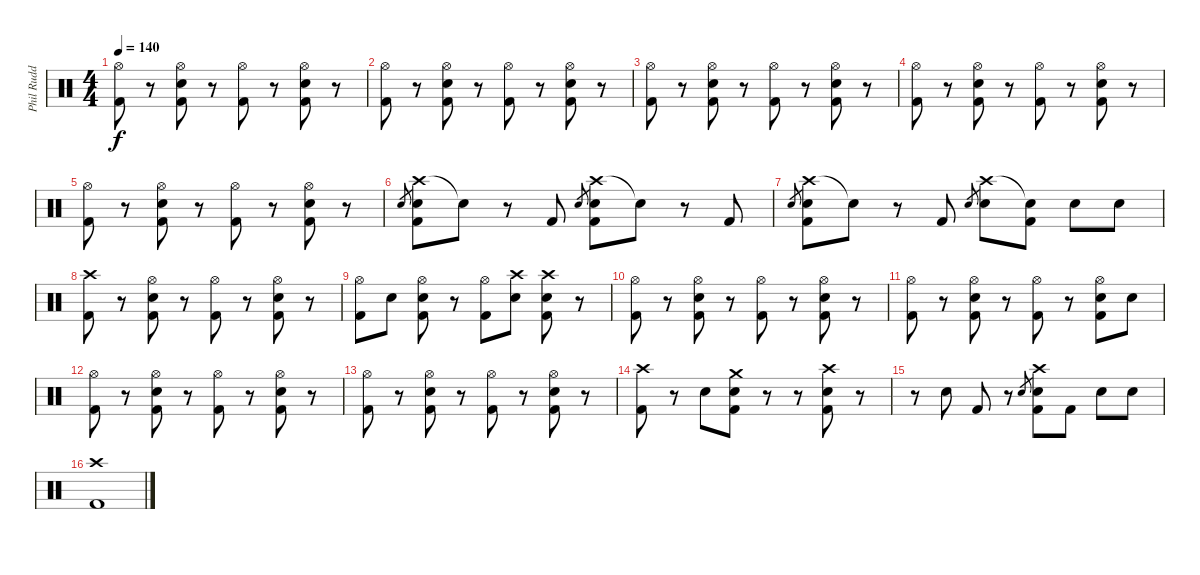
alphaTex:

\track ("Phil Rudd" "Phil Rudd") {instrument percussion}
\staff {score}
\articulation defaults
\ts (4 4)
\tempo 140
\clef neutral
\ks c
("Hi-Hat (open)" "Kick (hit) 2").8{dy f} r.8 ("Hi-Hat (open)" "Electric Snare (hit)" "Kick (hit) 2").8 r.8 ("Hi-Hat (open)" "Kick (hit) 2").8 r.8 ("Hi-Hat (open)" "Electric Snare (hit)" "Kick (hit) 2").8 r.8 |
("Hi-Hat (open)" "Kick (hit) 2").8 r.8 ("Hi-Hat (open)" "Electric Snare (hit)" "Kick (hit) 2").8 r.8 ("Hi-Hat (open)" "Kick (hit) 2").8 r.8 ("Hi-Hat (open)" "Electric Snare (hit)" "Kick (hit) 2").8 r.8 |
("Hi-Hat (open)" "Kick (hit) 2").8 r.8 ("Hi-Hat (open)" "Electric Snare (hit)" "Kick (hit) 2").8 r.8 ("Hi-Hat (open)" "Kick (hit) 2").8 r.8 ("Hi-Hat (open)" "Electric Snare (hit)" "Kick (hit) 2").8 r.8 |
("Hi-Hat (open)" "Kick (hit) 2").8 r.8 ("Hi-Hat (open)" "Electric Snare (hit)" "Kick (hit) 2").8 r.8 ("Hi-Hat (open)" "Kick (hit) 2").8 r.8 ("Hi-Hat (open)" "Electric Snare (hit)" "Kick (hit) 2").8 r.8 |
("Hi-Hat (open)" "Kick (hit) 2").8 r.8 ("Hi-Hat (open)" "Electric Snare (hit)" "Kick (hit) 2").8 r.8 ("Hi-Hat (open)" "Kick (hit) 2").8 r.8 ("Hi-Hat (open)" "Electric Snare (hit)" "Kick (hit) 2").8 r.8 |
"Electric Snare (hit)".8{gr} ("Crash high (hit)" "Electric Snare (hit)" "Kick (hit) 2").8 "Snare (hit)"{t}.8 r.8 "Kick (hit) 2".8 "Electric Snare (hit)".8{gr} ("Crash high (hit)" "Electric Snare (hit)" "Kick (hit) 2").8 "Snare (hit)"{t}.8 r.8 "Kick (hit) 2".8 |
"Electric Snare (hit)".8{gr} ("Crash high (hit)" "Electric Snare (hit)" "Kick (hit) 2").8 "Snare (hit)"{t}.8 r.8 "Kick (hit) 2".8 "Electric Snare (hit)".8{gr} ("Crash high (hit)" "Electric Snare (hit)").8 ("Snare (hit)"{t} "Kick (hit) 2").8 "Electric Snare (hit)".8 "Electric Snare (hit)".8 |
("Crash high (hit)" "Kick (hit) 2").8 r.8 ("Hi-Hat (open)" "Electric Snare (hit)" "Kick (hit) 2").8 r.8 ("Hi-Hat (open)" "Kick (hit) 2").8 r.8 ("Hi-Hat (open)" "Electric Snare (hit)" "Kick (hit) 2").8 r.8 |
("Hi-Hat (open)" "Kick (hit) 2").8 "Electric Snare (hit)".8 ("Hi-Hat (open)" "Electric Snare (hit)" "Kick (hit) 2").8 r.8 ("Hi-Hat (open)" "Kick (hit) 2").8 ("Crash high (hit)" "Electric Snare (hit)").8 ("Crash high (hit)" "Electric Snare (hit)" "Kick (hit) 2").8 r.8 |
("Hi-Hat (open)" "Kick (hit) 2").8 r.8 ("Hi-Hat (open)" "Electric Snare (hit)" "Kick (hit) 2").8 r.8 ("Hi-Hat (open)" "Kick (hit) 2").8 r.8 ("Hi-Hat (open)" "Electric Snare (hit)" "Kick (hit) 2").8 r.8 |
("Hi-Hat (open)" "Kick (hit) 2").8 r.8 ("Hi-Hat (open)" "Electric Snare (hit)" "Kick (hit) 2").8 r.8 ("Hi-Hat (open)" "Kick (hit) 2").8 r.8 ("Hi-Hat (open)" "Electric Snare (hit)" "Kick (hit) 2").8 "Electric Snare (hit)".8 |
("Hi-Hat (open)" "Kick (hit) 2").8 r.8 ("Hi-Hat (open)" "Electric Snare (hit)" "Kick (hit) 2").8 r.8 ("Hi-Hat (open)" "Kick (hit) 2").8 r.8 ("Hi-Hat (open)" "Electric Snare (hit)" "Kick (hit) 2").8 r.8 |
("Hi-Hat (open)" "Kick (hit) 2").8 r.8 ("Hi-Hat (open)" "Electric Snare (hit)" "Kick (hit) 2").8 r.8 ("Hi-Hat (open)" "Kick (hit) 2").8 r.8 ("Hi-Hat (open)" "Electric Snare (hit)" "Kick (hit) 2").8 r.8 |
("Crash high (hit)" "Kick (hit) 2").8 r.8 "Electric Snare (hit)".8 ("Crash medium (hit)" "Electric Snare (hit)" "Kick (hit) 2").8 r.8 r.8 ("Crash high (hit)" "Electric Snare (hit)" "Kick (hit) 2").8 r.8 |
r.8 "Electric Snare (hit)".8 "Kick (hit) 2".8 r.8 "Electric Snare (hit)".8{gr} ("Crash high (hit)" "Electric Snare (hit)" "Kick (hit) 2").8 "Kick (hit) 2".8 "Electric Snare (hit)".8 "Electric Snare (hit)".8 |
("Crash high (hit)" "Kick (hit) 2").1
